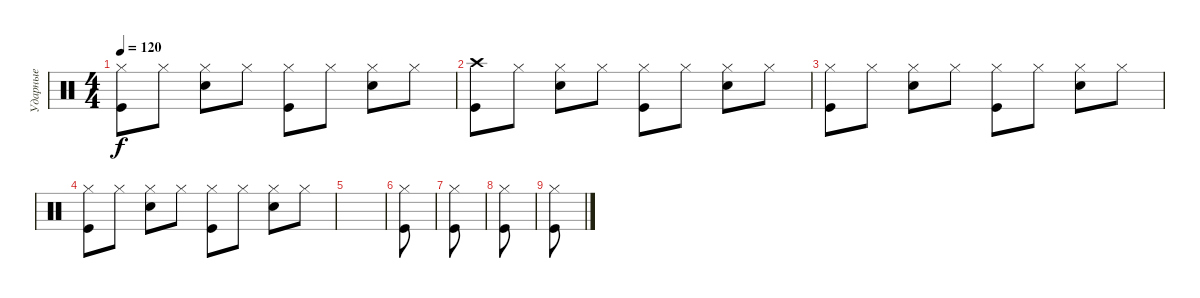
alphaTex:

\track ("Ударные" "Ударные") {instrument percussion}
\staff {score}
\articulation defaults
\ts (4 4)
\tempo 120
\clef neutral
\ks c
("Hi-Hat (closed)" "Kick (hit)").8{dy f} "Hi-Hat (closed)".8 ("Hi-Hat (closed)" "Electric Snare (hit)").8 "Hi-Hat (closed)".8 ("Hi-Hat (closed)" "Kick (hit)").8 "Hi-Hat (closed)".8 ("Hi-Hat (closed)" "Electric Snare (hit)").8 "Hi-Hat (closed)".8 |
("Crash high (hit)" "Kick (hit)").8 "Hi-Hat (closed)".8 ("Hi-Hat (closed)" "Electric Snare (hit)").8 "Hi-Hat (closed)".8 ("Hi-Hat (closed)" "Kick (hit)").8 "Hi-Hat (closed)".8 ("Hi-Hat (closed)" "Electric Snare (hit)").8 "Hi-Hat (closed)".8 |
("Hi-Hat (closed)" "Kick (hit)").8 "Hi-Hat (closed)".8 ("Hi-Hat (closed)" "Electric Snare (hit)").8 "Hi-Hat (closed)".8 ("Hi-Hat (closed)" "Kick (hit)").8 "Hi-Hat (closed)".8 ("Hi-Hat (closed)" "Electric Snare (hit)").8 "Hi-Hat (closed)".8 |
("Hi-Hat (closed)" "Kick (hit)").8 "Hi-Hat (closed)".8 ("Hi-Hat (closed)" "Electric Snare (hit)").8 "Hi-Hat (closed)".8 ("Hi-Hat (closed)" "Kick (hit)").8 "Hi-Hat (closed)".8 ("Hi-Hat (closed)" "Electric Snare (hit)").8 "Hi-Hat (closed)".8 |
|
("Hi-Hat (closed)" "Kick (hit)").8 |
("Hi-Hat (closed)" "Kick (hit)").8 |
("Hi-Hat (closed)" "Kick (hit)").8 |
("Hi-Hat (closed)" "Kick (hit)").8
